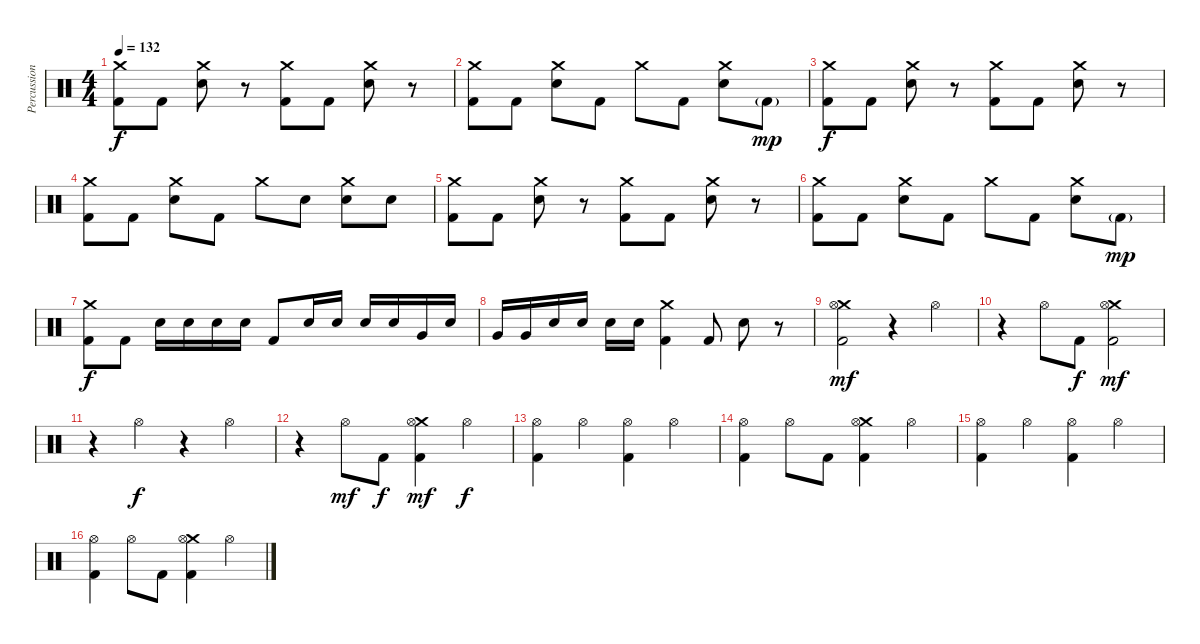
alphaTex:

\track ("Percussion" "Percussion") {instrument percussion}
\staff {score}
\articulation defaults
\ts (4 4)
\tempo 132
\clef neutral
\ks c
("Crash medium (hit)" "Kick (hit) 2").8{dy f} "Kick (hit) 2".8 ("Crash medium (hit)" "Snare (hit) 2").8 r.8 ("Crash medium (hit)" "Kick (hit) 2").8 "Kick (hit) 2".8 ("Crash medium (hit)" "Snare (hit) 2").8 r.8 |
("Crash medium (hit)" "Kick (hit) 2").8 "Kick (hit) 2".8 ("Crash medium (hit)" "Snare (hit) 2").8 "Kick (hit) 2".8 "Crash medium (hit)".8 "Kick (hit) 2".8 ("Crash medium (hit)" "Snare (hit) 2").8 "Kick (hit) 2"{g}.8{dy mp} |
("Crash medium (hit)" "Kick (hit) 2").8{dy f} "Kick (hit) 2".8 ("Crash medium (hit)" "Snare (hit) 2").8 r.8 ("Crash medium (hit)" "Kick (hit) 2").8 "Kick (hit) 2".8 ("Crash medium (hit)" "Snare (hit) 2").8 r.8 |
("Crash medium (hit)" "Kick (hit) 2").8 "Kick (hit) 2".8 ("Crash medium (hit)" "Snare (hit) 2").8 "Kick (hit) 2".8 "Crash medium (hit)".8 "Snare (hit) 2".8 ("Crash medium (hit)" "Snare (hit) 2").8 "Snare (hit) 2".8 |
("Crash medium (hit)" "Kick (hit) 2").8 "Kick (hit) 2".8 ("Crash medium (hit)" "Snare (hit) 2").8 r.8 ("Crash medium (hit)" "Kick (hit) 2").8 "Kick (hit) 2".8 ("Crash medium (hit)" "Snare (hit) 2").8 r.8 |
("Crash medium (hit)" "Kick (hit) 2").8 "Kick (hit) 2".8 ("Crash medium (hit)" "Snare (hit) 2").8 "Kick (hit) 2".8 "Crash medium (hit)".8 "Kick (hit) 2".8 ("Crash medium (hit)" "Snare (hit) 2").8 "Kick (hit) 2"{g}.8{dy mp} |
("Crash medium (hit)" "Kick (hit) 2").8{dy f} "Kick (hit) 2".8 "Snare (hit) 2".16 "Snare (hit) 2".16 "Snare (hit) 2".16 "Snare (hit) 2".16 "Kick (hit) 2".8 "Snare (hit) 2".16 "Snare (hit) 2".16 "Snare (hit) 2".16 "Snare (hit) 2".16 "Very Low Tom (hit)".16 "Snare (hit) 2".16 |
"Very Low Tom (hit)".16 "Very Low Tom (hit)".16 "Snare (hit) 2".16 "Snare (hit) 2".16 "Snare (hit) 2".16 "Snare (hit) 2".16 ("Crash medium (hit)" "Kick (hit) 2").4 "Kick (hit) 2".8 "Snare (hit) 2".8 r.8 |
("Crash medium (hit)" "Hi-Hat (open)" "Kick (hit) 2").2{dy mf} r.4 "Hi-Hat (open)".4 |
r.4 "Hi-Hat (open)".8 "Kick (hit) 2".8{dy f} ("Crash medium (hit)" "Hi-Hat (open)" "Kick (hit) 2").2{dy mf} |
r.4 "Hi-Hat (open)".4{dy f} r.4 "Hi-Hat (open)".4 |
r.4 "Hi-Hat (open)".8{dy mf} "Kick (hit) 2".8{dy f} ("Crash medium (hit)" "Hi-Hat (open)" "Kick (hit) 2").4{dy mf} "Hi-Hat (open)".4{dy f} |
("Hi-Hat (open)" "Kick (hit) 2").4 "Hi-Hat (open)".4 ("Hi-Hat (open)" "Kick (hit) 2").4 "Hi-Hat (open)".4 |
("Hi-Hat (open)" "Kick (hit) 2").4 "Hi-Hat (open)".8 "Kick (hit) 2".8 ("Crash medium (hit)" "Hi-Hat (open)" "Kick (hit) 2").4 "Hi-Hat (open)".4 |
("Hi-Hat (open)" "Kick (hit) 2").4 "Hi-Hat (open)".4 ("Hi-Hat (open)" "Kick (hit) 2").4 "Hi-Hat (open)".4 |
("Hi-Hat (open)" "Kick (hit) 2").4 "Hi-Hat (open)".8 "Kick (hit) 2".8 ("Crash medium (hit)" "Hi-Hat (open)" "Kick (hit) 2").4 "Hi-Hat (open)".4
